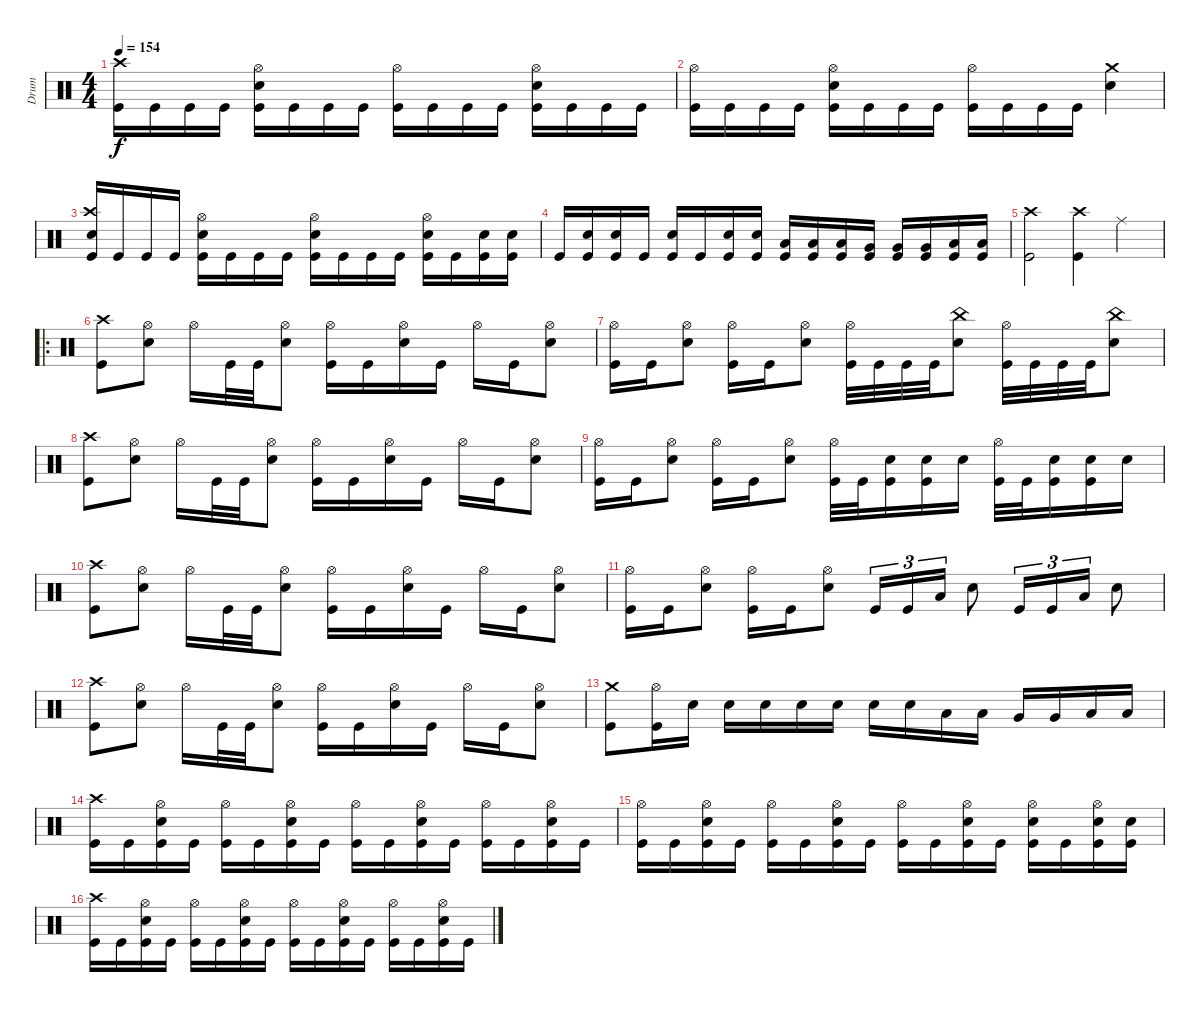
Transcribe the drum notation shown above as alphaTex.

\track ("Drum" "Drum") {instrument percussion}
\staff {score}
\articulation defaults
\ts (4 4)
\tempo 154
\clef neutral
\ks c
("Kick (hit)" "Crash high (hit)").16{dy f} "Kick (hit)".16 "Kick (hit)".16 "Kick (hit)".16 ("Kick (hit)" "Electric Snare (hit)" "Hi-Hat (open)").16 "Kick (hit)".16 "Kick (hit)".16 "Kick (hit)".16 ("Kick (hit)" "Hi-Hat (open)").16 "Kick (hit)".16 "Kick (hit)".16 "Kick (hit)".16 ("Kick (hit)" "Electric Snare (hit)" "Hi-Hat (open)").16 "Kick (hit)".16 "Kick (hit)".16 "Kick (hit)".16 |
("Kick (hit)" "Hi-Hat (open)").16 "Kick (hit)".16 "Kick (hit)".16 "Kick (hit)".16 ("Kick (hit)" "Electric Snare (hit)" "Hi-Hat (open)").16 "Kick (hit)".16 "Kick (hit)".16 "Kick (hit)".16 ("Kick (hit)" "Hi-Hat (open)").16 "Kick (hit)".16 "Kick (hit)".16 "Kick (hit)".16 ("Electric Snare (hit)" "Crash medium (hit)").4 |
("Kick (hit)" "Electric Snare (hit)" "Crash high (hit)").16 "Kick (hit)".16 "Kick (hit)".16 "Kick (hit)".16 ("Kick (hit)" "Electric Snare (hit)" "Hi-Hat (open)").16 "Kick (hit)".16 "Kick (hit)".16 "Kick (hit)".16 ("Kick (hit)" "Electric Snare (hit)" "Hi-Hat (open)").16 "Kick (hit)".16 "Kick (hit)".16 "Kick (hit)".16 ("Kick (hit)" "Electric Snare (hit)" "Hi-Hat (open)").16 "Kick (hit)".16 ("Kick (hit)" "Electric Snare (hit)").16 ("Kick (hit)" "Electric Snare (hit)").16 |
"Kick (hit)".16 ("Kick (hit)" "Electric Snare (hit)").16 ("Kick (hit)" "Electric Snare (hit)").16 "Kick (hit)".16 ("Kick (hit)" "Electric Snare (hit)").16 "Kick (hit)".16 ("Kick (hit)" "Electric Snare (hit)").16 ("Kick (hit)" "Electric Snare (hit)").16 ("Kick (hit)" "Low Tom (hit)").16 ("Kick (hit)" "Low Tom (hit)").16 ("Kick (hit)" "Low Tom (hit)").16 ("Kick (hit)" "Very Low Tom (hit)").16 ("Kick (hit)" "Very Low Tom (hit)").16 ("Kick (hit)" "Very Low Tom (hit)").16 ("Kick (hit)" "Low Floor Tom (hit)").16 ("Kick (hit)" "Low Floor Tom (hit)").16 |
("Kick (hit)" "Crash high (hit)").2 ("Kick (hit)" "Crash high (hit)").4 "Ride (middle)".4 |
\ro
("Kick (hit)" "Crash high (hit)").8 ("Electric Snare (hit)" "Hi-Hat (open)").8 "Hi-Hat (open)".16 "Kick (hit)".32 "Kick (hit)".32 ("Electric Snare (hit)" "Hi-Hat (open)").8 ("Kick (hit)" "Hi-Hat (open)").16 "Kick (hit)".16 ("Electric Snare (hit)" "Hi-Hat (open)").16 "Kick (hit)".16 "Hi-Hat (open)".16 "Kick (hit)".16 ("Electric Snare (hit)" "Hi-Hat (open)").8 |
("Kick (hit)" "Hi-Hat (open)").16 "Kick (hit)".16 ("Electric Snare (hit)" "Hi-Hat (open)").8 ("Kick (hit)" "Hi-Hat (open)").16 "Kick (hit)".16 ("Electric Snare (hit)" "Hi-Hat (open)").8 ("Kick (hit)" "Hi-Hat (open)").32 "Kick (hit)".32 "Kick (hit)".32 "Kick (hit)".32 ("Electric Snare (hit)" "China (hit)").8 ("Kick (hit)" "Hi-Hat (open)").32 "Kick (hit)".32 "Kick (hit)".32 "Kick (hit)".32 ("Electric Snare (hit)" "China (hit)").8 |
("Kick (hit)" "Crash high (hit)").8 ("Electric Snare (hit)" "Hi-Hat (open)").8 "Hi-Hat (open)".16 "Kick (hit)".32 "Kick (hit)".32 ("Electric Snare (hit)" "Hi-Hat (open)").8 ("Kick (hit)" "Hi-Hat (open)").16 "Kick (hit)".16 ("Electric Snare (hit)" "Hi-Hat (open)").16 "Kick (hit)".16 "Hi-Hat (open)".16 "Kick (hit)".16 ("Electric Snare (hit)" "Hi-Hat (open)").8 |
("Kick (hit)" "Hi-Hat (open)").16 "Kick (hit)".16 ("Electric Snare (hit)" "Hi-Hat (open)").8 ("Kick (hit)" "Hi-Hat (open)").16 "Kick (hit)".16 ("Electric Snare (hit)" "Hi-Hat (open)").8 ("Kick (hit)" "Hi-Hat (open)").32 "Kick (hit)".32 ("Kick (hit)" "Electric Snare (hit)").16 ("Kick (hit)" "Electric Snare (hit)").16 "Electric Snare (hit)".16 ("Kick (hit)" "Hi-Hat (open)").32 "Kick (hit)".32 ("Kick (hit)" "Electric Snare (hit)").16 ("Kick (hit)" "Electric Snare (hit)").16 "Electric Snare (hit)".16 |
("Kick (hit)" "Crash high (hit)").8 ("Electric Snare (hit)" "Hi-Hat (open)").8 "Hi-Hat (open)".16 "Kick (hit)".32 "Kick (hit)".32 ("Electric Snare (hit)" "Hi-Hat (open)").8 ("Kick (hit)" "Hi-Hat (open)").16 "Kick (hit)".16 ("Electric Snare (hit)" "Hi-Hat (open)").16 "Kick (hit)".16 "Hi-Hat (open)".16 "Kick (hit)".16 ("Electric Snare (hit)" "Hi-Hat (open)").8 |
("Kick (hit)" "Hi-Hat (open)").16 "Kick (hit)".16 ("Electric Snare (hit)" "Hi-Hat (open)").8 ("Kick (hit)" "Hi-Hat (open)").16 "Kick (hit)".16 ("Electric Snare (hit)" "Hi-Hat (open)").8 "Kick (hit)".16{tu (3 2)} "Kick (hit)".16{tu (3 2)} "Low Tom (hit)".16{tu (3 2)} "Electric Snare (hit)".8 "Kick (hit)".16{tu (3 2)} "Kick (hit)".16{tu (3 2)} "Low Tom (hit)".16{tu (3 2)} "Electric Snare (hit)".8 |
("Kick (hit)" "Crash high (hit)").8 ("Electric Snare (hit)" "Hi-Hat (open)").8 "Hi-Hat (open)".16 "Kick (hit)".32 "Kick (hit)".32 ("Electric Snare (hit)" "Hi-Hat (open)").8 ("Kick (hit)" "Hi-Hat (open)").16 "Kick (hit)".16 ("Electric Snare (hit)" "Hi-Hat (open)").16 "Kick (hit)".16 "Hi-Hat (open)".16 "Kick (hit)".16 ("Electric Snare (hit)" "Hi-Hat (open)").8 |
("Kick (hit)" "Crash medium (hit)").8 ("Kick (hit)" "Hi-Hat (open)").16 "Electric Snare (hit)".16 "Electric Snare (hit)".16 "Electric Snare (hit)".16 "Electric Snare (hit)".16 "Electric Snare (hit)".16 "Electric Snare (hit)".16 "Electric Snare (hit)".16 "Low Tom (hit)".16 "Low Tom (hit)".16 "Very Low Tom (hit)".16 "Very Low Tom (hit)".16 "Low Floor Tom (hit)".16 "Low Floor Tom (hit)".16 |
("Kick (hit)" "Crash high (hit)").16 "Kick (hit)".16 ("Kick (hit)" "Electric Snare (hit)" "Hi-Hat (open)").16 "Kick (hit)".16 ("Kick (hit)" "Hi-Hat (open)").16 "Kick (hit)".16 ("Kick (hit)" "Electric Snare (hit)" "Hi-Hat (open)").16 "Kick (hit)".16 ("Kick (hit)" "Hi-Hat (open)").16 "Kick (hit)".16 ("Kick (hit)" "Electric Snare (hit)" "Hi-Hat (open)").16 "Kick (hit)".16 ("Kick (hit)" "Hi-Hat (open)").16 "Kick (hit)".16 ("Kick (hit)" "Electric Snare (hit)" "Hi-Hat (open)").16 "Kick (hit)".16 |
("Kick (hit)" "Hi-Hat (open)").16 "Kick (hit)".16 ("Kick (hit)" "Electric Snare (hit)" "Hi-Hat (open)").16 "Kick (hit)".16 ("Kick (hit)" "Hi-Hat (open)").16 "Kick (hit)".16 ("Kick (hit)" "Electric Snare (hit)" "Hi-Hat (open)").16 "Kick (hit)".16 ("Kick (hit)" "Hi-Hat (open)").16 "Kick (hit)".16 ("Kick (hit)" "Electric Snare (hit)" "Hi-Hat (open)").16 "Kick (hit)".16 ("Kick (hit)" "Electric Snare (hit)" "Hi-Hat (open)").16 "Kick (hit)".16 ("Kick (hit)" "Electric Snare (hit)" "Hi-Hat (open)").16 ("Kick (hit)" "Electric Snare (hit)").16 |
("Kick (hit)" "Crash high (hit)").16 "Kick (hit)".16 ("Kick (hit)" "Electric Snare (hit)" "Hi-Hat (open)").16 "Kick (hit)".16 ("Kick (hit)" "Hi-Hat (open)").16 "Kick (hit)".16 ("Kick (hit)" "Electric Snare (hit)" "Hi-Hat (open)").16 "Kick (hit)".16 ("Kick (hit)" "Hi-Hat (open)").16 "Kick (hit)".16 ("Kick (hit)" "Electric Snare (hit)" "Hi-Hat (open)").16 "Kick (hit)".16 ("Kick (hit)" "Hi-Hat (open)").16 "Kick (hit)".16 ("Kick (hit)" "Electric Snare (hit)" "Hi-Hat (open)").16 "Kick (hit)".16
